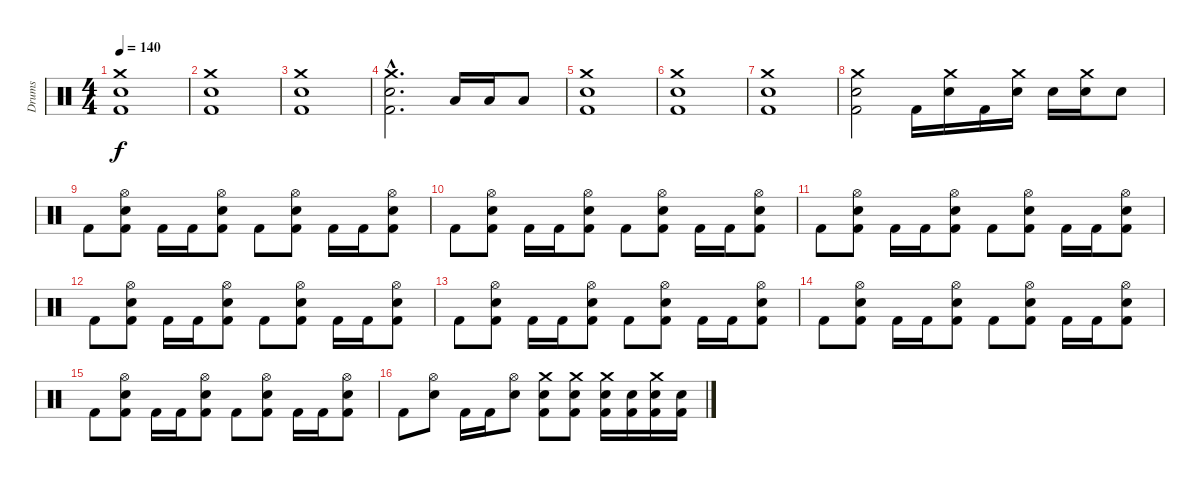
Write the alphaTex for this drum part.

\track ("Drums" "Drums") {instrument percussion}
\staff {score}
\articulation defaults
\ts (4 4)
\tempo 140
\clef neutral
\ks c
("Crash medium (hit)" "Electric Snare (hit)" "Kick (hit) 2").1{dy f} |
("Crash medium (hit)" "Electric Snare (hit)" "Kick (hit) 2").1 |
("Crash medium (hit)" "Electric Snare (hit)" "Kick (hit) 2").1 |
("Crash medium (hit)"{hac} "Electric Snare (hit)"{hac} "Kick (hit) 2"{hac}).2{d} "Low Tom (hit)".16 "Low Tom (hit)".16 "Low Tom (hit)".8 |
("Crash medium (hit)" "Electric Snare (hit)" "Kick (hit) 2").1 |
("Crash medium (hit)" "Electric Snare (hit)" "Kick (hit) 2").1 |
("Crash medium (hit)" "Electric Snare (hit)" "Kick (hit) 2").1 |
("Crash medium (hit)" "Electric Snare (hit)" "Kick (hit) 2").2 "Kick (hit) 2".16 ("Crash medium (hit)" "Electric Snare (hit)").16 "Kick (hit) 2".16 ("Crash medium (hit)" "Electric Snare (hit)").16 "Electric Snare (hit)".16 ("Crash medium (hit)" "Electric Snare (hit)").16 "Electric Snare (hit)".8 |
"Kick (hit) 2".8 ("Hi-Hat (open)" "Electric Snare (hit)" "Kick (hit) 2").8 "Kick (hit) 2".16 "Kick (hit) 2".16 ("Hi-Hat (open)" "Electric Snare (hit)" "Kick (hit) 2").8 "Kick (hit) 2".8 ("Hi-Hat (open)" "Electric Snare (hit)" "Kick (hit) 2").8 "Kick (hit) 2".16 "Kick (hit) 2".16 ("Hi-Hat (open)" "Electric Snare (hit)" "Kick (hit) 2").8 |
"Kick (hit) 2".8 ("Hi-Hat (open)" "Electric Snare (hit)" "Kick (hit) 2").8 "Kick (hit) 2".16 "Kick (hit) 2".16 ("Hi-Hat (open)" "Electric Snare (hit)" "Kick (hit) 2").8 "Kick (hit) 2".8 ("Hi-Hat (open)" "Electric Snare (hit)" "Kick (hit) 2").8 "Kick (hit) 2".16 "Kick (hit) 2".16 ("Hi-Hat (open)" "Electric Snare (hit)" "Kick (hit) 2").8 |
"Kick (hit) 2".8 ("Hi-Hat (open)" "Electric Snare (hit)" "Kick (hit) 2").8 "Kick (hit) 2".16 "Kick (hit) 2".16 ("Hi-Hat (open)" "Electric Snare (hit)" "Kick (hit) 2").8 "Kick (hit) 2".8 ("Hi-Hat (open)" "Electric Snare (hit)" "Kick (hit) 2").8 "Kick (hit) 2".16 "Kick (hit) 2".16 ("Hi-Hat (open)" "Electric Snare (hit)" "Kick (hit) 2").8 |
"Kick (hit) 2".8 ("Hi-Hat (open)" "Electric Snare (hit)" "Kick (hit) 2").8 "Kick (hit) 2".16 "Kick (hit) 2".16 ("Hi-Hat (open)" "Electric Snare (hit)" "Kick (hit) 2").8 "Kick (hit) 2".8 ("Hi-Hat (open)" "Electric Snare (hit)" "Kick (hit) 2").8 "Kick (hit) 2".16 "Kick (hit) 2".16 ("Hi-Hat (open)" "Electric Snare (hit)" "Kick (hit) 2").8 |
"Kick (hit) 2".8 ("Hi-Hat (open)" "Electric Snare (hit)" "Kick (hit) 2").8 "Kick (hit) 2".16 "Kick (hit) 2".16 ("Hi-Hat (open)" "Electric Snare (hit)" "Kick (hit) 2").8 "Kick (hit) 2".8 ("Hi-Hat (open)" "Electric Snare (hit)" "Kick (hit) 2").8 "Kick (hit) 2".16 "Kick (hit) 2".16 ("Hi-Hat (open)" "Electric Snare (hit)" "Kick (hit) 2").8 |
"Kick (hit) 2".8 ("Hi-Hat (open)" "Electric Snare (hit)" "Kick (hit) 2").8 "Kick (hit) 2".16 "Kick (hit) 2".16 ("Hi-Hat (open)" "Electric Snare (hit)" "Kick (hit) 2").8 "Kick (hit) 2".8 ("Hi-Hat (open)" "Electric Snare (hit)" "Kick (hit) 2").8 "Kick (hit) 2".16 "Kick (hit) 2".16 ("Hi-Hat (open)" "Electric Snare (hit)" "Kick (hit) 2").8 |
"Kick (hit) 2".8 ("Hi-Hat (open)" "Electric Snare (hit)" "Kick (hit) 2").8 "Kick (hit) 2".16 "Kick (hit) 2".16 ("Hi-Hat (open)" "Electric Snare (hit)" "Kick (hit) 2").8 "Kick (hit) 2".8 ("Hi-Hat (open)" "Electric Snare (hit)" "Kick (hit) 2").8 "Kick (hit) 2".16 "Kick (hit) 2".16 ("Hi-Hat (open)" "Electric Snare (hit)" "Kick (hit) 2").8 |
"Kick (hit) 2".8 ("Hi-Hat (open)" "Electric Snare (hit)").8 "Kick (hit) 2".16 "Kick (hit) 2".16 ("Hi-Hat (open)" "Electric Snare (hit)").8 ("Crash medium (hit)" "Electric Snare (hit)" "Kick (hit) 2").8 ("Crash medium (hit)" "Electric Snare (hit)" "Kick (hit) 2").8 ("Crash medium (hit)" "Electric Snare (hit)" "Kick (hit) 2").16 ("Electric Snare (hit)" "Kick (hit) 2").16 ("Crash medium (hit)" "Electric Snare (hit)" "Kick (hit) 2").16 ("Electric Snare (hit)" "Kick (hit) 2").16
